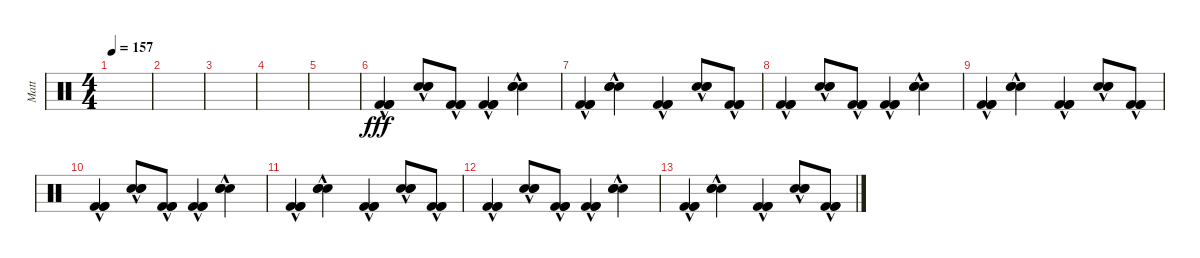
\track ("Matt" "Matt") {instrument percussion}
\staff {score}
\articulation defaults
\ts (4 4)
\tempo 157
\clef neutral
\ks c
|
|
|
|
|
("Kick (hit) 2"{hac} "Kick (hit) 2"{hac} "Kick (hit) 2"{hac}).4{dy fff} ("Snare (hit) 2"{hac} "Snare (hit) 2"{hac} "Snare (hit) 2"{hac}).8 ("Kick (hit) 2"{hac} "Kick (hit) 2"{hac} "Kick (hit) 2"{hac}).8 ("Kick (hit) 2"{hac} "Kick (hit) 2"{hac} "Kick (hit) 2"{hac}).4 ("Snare (hit) 2"{hac} "Snare (hit) 2"{hac} "Snare (hit) 2"{hac}).4 |
("Kick (hit) 2"{hac} "Kick (hit) 2"{hac} "Kick (hit) 2"{hac}).4 ("Snare (hit) 2"{hac} "Snare (hit) 2"{hac} "Snare (hit) 2"{hac}).4 ("Kick (hit) 2"{hac} "Kick (hit) 2"{hac} "Kick (hit) 2"{hac}).4 ("Snare (hit) 2"{hac} "Snare (hit) 2"{hac} "Snare (hit) 2"{hac}).8 ("Kick (hit) 2"{hac} "Kick (hit) 2"{hac} "Kick (hit) 2"{hac}).8 |
("Kick (hit) 2"{hac} "Kick (hit) 2"{hac} "Kick (hit) 2"{hac}).4 ("Snare (hit) 2"{hac} "Snare (hit) 2"{hac} "Snare (hit) 2"{hac}).8 ("Kick (hit) 2"{hac} "Kick (hit) 2"{hac} "Kick (hit) 2"{hac}).8 ("Kick (hit) 2"{hac} "Kick (hit) 2"{hac} "Kick (hit) 2"{hac}).4 ("Snare (hit) 2"{hac} "Snare (hit) 2"{hac} "Snare (hit) 2"{hac}).4 |
("Kick (hit) 2"{hac} "Kick (hit) 2"{hac} "Kick (hit) 2"{hac}).4 ("Snare (hit) 2"{hac} "Snare (hit) 2"{hac} "Snare (hit) 2"{hac}).4 ("Kick (hit) 2"{hac} "Kick (hit) 2"{hac} "Kick (hit) 2"{hac}).4 ("Snare (hit) 2"{hac} "Snare (hit) 2"{hac} "Snare (hit) 2"{hac}).8 ("Kick (hit) 2"{hac} "Kick (hit) 2"{hac} "Kick (hit) 2"{hac}).8 |
("Kick (hit) 2"{hac} "Kick (hit) 2"{hac} "Kick (hit) 2"{hac}).4 ("Snare (hit) 2"{hac} "Snare (hit) 2"{hac} "Snare (hit) 2"{hac}).8 ("Kick (hit) 2"{hac} "Kick (hit) 2"{hac} "Kick (hit) 2"{hac}).8 ("Kick (hit) 2"{hac} "Kick (hit) 2"{hac} "Kick (hit) 2"{hac}).4 ("Snare (hit) 2"{hac} "Snare (hit) 2"{hac} "Snare (hit) 2"{hac}).4 |
("Kick (hit) 2"{hac} "Kick (hit) 2"{hac} "Kick (hit) 2"{hac}).4 ("Snare (hit) 2"{hac} "Snare (hit) 2"{hac} "Snare (hit) 2"{hac}).4 ("Kick (hit) 2"{hac} "Kick (hit) 2"{hac} "Kick (hit) 2"{hac}).4 ("Snare (hit) 2"{hac} "Snare (hit) 2"{hac} "Snare (hit) 2"{hac}).8 ("Kick (hit) 2"{hac} "Kick (hit) 2"{hac} "Kick (hit) 2"{hac}).8 |
("Kick (hit) 2"{hac} "Kick (hit) 2"{hac} "Kick (hit) 2"{hac}).4 ("Snare (hit) 2"{hac} "Snare (hit) 2"{hac} "Snare (hit) 2"{hac}).8 ("Kick (hit) 2"{hac} "Kick (hit) 2"{hac} "Kick (hit) 2"{hac}).8 ("Kick (hit) 2"{hac} "Kick (hit) 2"{hac} "Kick (hit) 2"{hac}).4 ("Snare (hit) 2"{hac} "Snare (hit) 2"{hac} "Snare (hit) 2"{hac}).4 |
("Kick (hit) 2"{hac} "Kick (hit) 2"{hac} "Kick (hit) 2"{hac}).4 ("Snare (hit) 2"{hac} "Snare (hit) 2"{hac} "Snare (hit) 2"{hac}).4 ("Kick (hit) 2"{hac} "Kick (hit) 2"{hac} "Kick (hit) 2"{hac}).4 ("Snare (hit) 2"{hac} "Snare (hit) 2"{hac} "Snare (hit) 2"{hac}).8 ("Kick (hit) 2"{hac} "Kick (hit) 2"{hac} "Kick (hit) 2"{hac}).8
